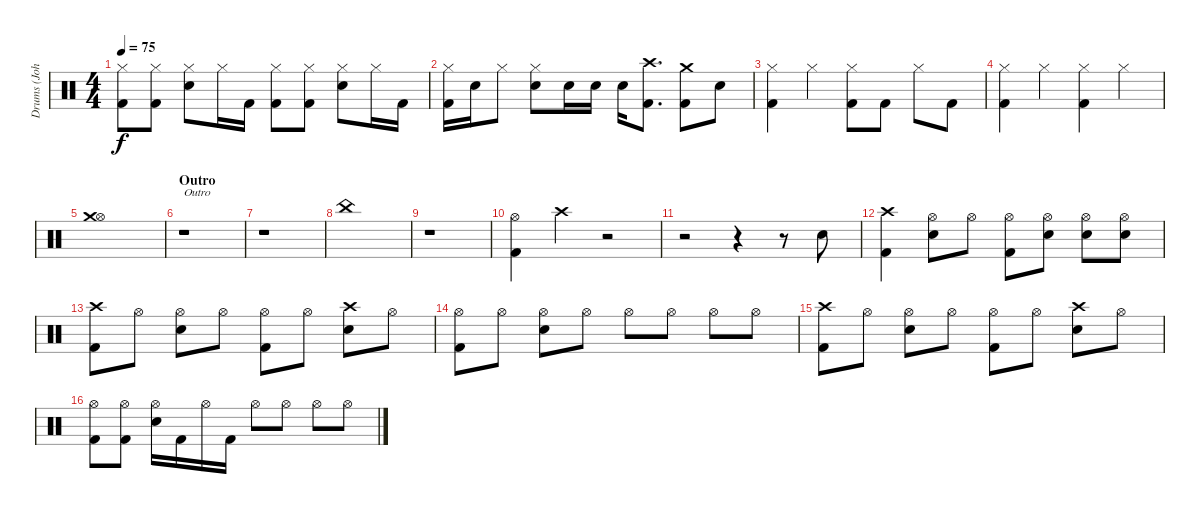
\track ("Drums (John Bonham" "Drums (Joh") {instrument percussion}
\staff {score}
\articulation defaults
\ts (4 4)
\tempo 75
\clef neutral
\ks c
("Hi-Hat (closed)" "Kick (hit) 2").8{dy f} ("Hi-Hat (closed)" "Kick (hit) 2").8 ("Hi-Hat (closed)" "Snare (hit) 2").8 "Hi-Hat (closed)".16 "Kick (hit) 2".16 ("Hi-Hat (closed)" "Kick (hit) 2").8 ("Hi-Hat (closed)" "Kick (hit) 2").8 ("Hi-Hat (closed)" "Snare (hit) 2").8 "Hi-Hat (closed)".16 "Kick (hit) 2".16 |
("Hi-Hat (closed)" "Kick (hit) 2").16 "Snare (hit) 2".16 "Hi-Hat (closed)".8 ("Hi-Hat (closed)" "Snare (hit) 2").8 "Snare (hit) 2".16 "Snare (hit) 2".16 "Snare (hit) 2".16 ("Crash high (hit)" "Kick (hit) 2").8{d} ("Crash medium (hit)" "Kick (hit) 2").8 "Snare (hit) 2".8 |
("Hi-Hat (closed)" "Kick (hit) 2").4 "Hi-Hat (closed)".4 ("Hi-Hat (closed)" "Kick (hit) 2").8 "Kick (hit) 2".8 "Hi-Hat (closed)".8 "Kick (hit) 2".8 |
("Hi-Hat (closed)" "Kick (hit) 2").4 "Hi-Hat (closed)".4 ("Hi-Hat (closed)" "Kick (hit) 2").4 "Hi-Hat (closed)".4 |
("Hi-Hat (open)" "Crash medium (hit)").1 |
\section ("" "Outro")
r.1{txt "Outro"} |
r.1 |
"China (hit)".1 |
r.1 |
("Hi-Hat (open)" "Kick (hit) 2").4 "Crash high (hit)".4 r.2 |
r.2 r.4 r.8 "Electric Snare (hit)".8 |
("Crash high (hit)" "Kick (hit) 2").4 ("Hi-Hat (open)" "Snare (hit) 2").8 "Hi-Hat (open)".8 ("Hi-Hat (open)" "Kick (hit) 2").8 ("Hi-Hat (open)" "Snare (hit) 2").8 ("Hi-Hat (open)" "Snare (hit) 2").8 ("Hi-Hat (open)" "Snare (hit) 2").8 |
("Crash high (hit)" "Kick (hit) 2").8 "Hi-Hat (open)".8 ("Hi-Hat (open)" "Snare (hit) 2").8 "Hi-Hat (open)".8 ("Hi-Hat (open)" "Kick (hit) 2").8 "Hi-Hat (open)".8 ("Crash high (hit)" "Snare (hit) 2").8 "Hi-Hat (open)".8 |
("Hi-Hat (open)" "Kick (hit) 2").8 "Hi-Hat (open)".8 ("Hi-Hat (open)" "Snare (hit) 2").8 "Hi-Hat (open)".8 "Hi-Hat (open)".8 "Hi-Hat (open)".8 "Hi-Hat (open)".8 "Hi-Hat (open)".8 |
("Crash high (hit)" "Kick (hit) 2").8 "Hi-Hat (open)".8 ("Hi-Hat (open)" "Snare (hit) 2").8 "Hi-Hat (open)".8 ("Hi-Hat (open)" "Kick (hit) 2").8 "Hi-Hat (open)".8 ("Crash high (hit)" "Snare (hit) 2").8 "Hi-Hat (open)".8 |
("Hi-Hat (open)" "Kick (hit) 2").8 ("Hi-Hat (open)" "Kick (hit) 2").8 ("Hi-Hat (open)" "Snare (hit) 2").16 "Kick (hit) 2".16 "Hi-Hat (open)".16 "Kick (hit) 2".16 "Hi-Hat (open)".8 "Hi-Hat (open)".8 "Hi-Hat (open)".8 "Hi-Hat (open)".8
